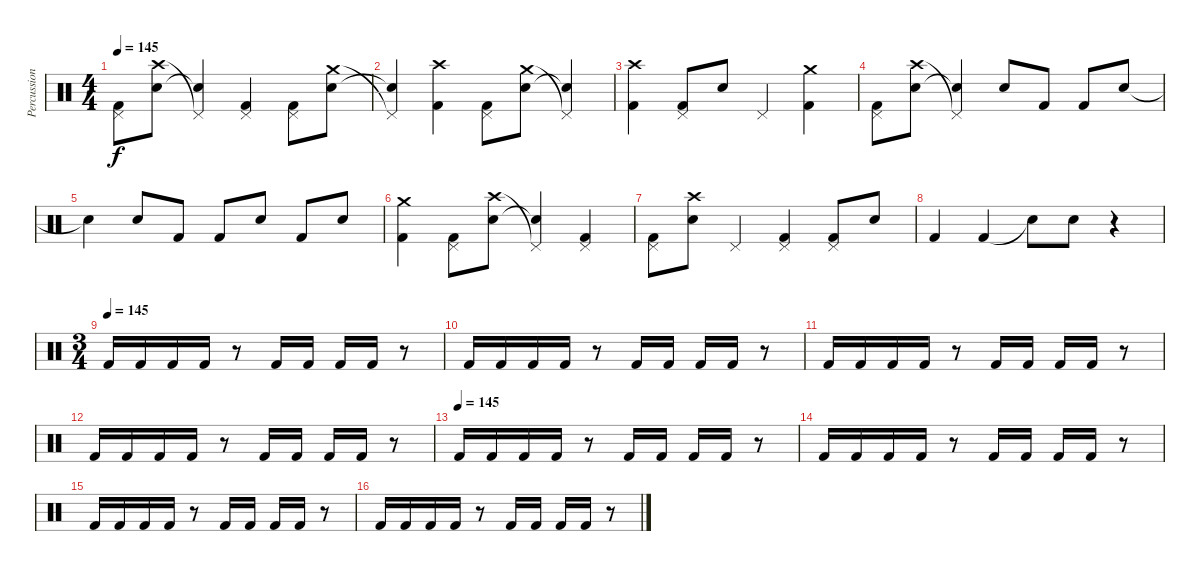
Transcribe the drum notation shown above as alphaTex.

\track ("Percussion" "Percussion") {instrument percussion}
\staff {score}
\articulation defaults
\ts (4 4)
\tempo 145
\clef neutral
\ks c
("Pedal Hi-Hat (hit)" "Kick (hit) 2").8{dy f} ("Crash high (hit)" "Electric Snare (hit)").8 ("Pedal Hi-Hat (hit)"{t} "Snare (hit)"{t}).4 ("Pedal Hi-Hat (hit)" "Kick (hit) 2").4 ("Pedal Hi-Hat (hit)" "Kick (hit) 2").8 ("Crash medium (hit)" "Electric Snare (hit)").8 |
("Pedal Hi-Hat (hit)"{t} "Snare (hit)"{t}).4 ("Crash high (hit)" "Kick (hit) 2").4 ("Pedal Hi-Hat (hit)" "Kick (hit) 2").8 ("Crash medium (hit)" "Electric Snare (hit)").8 ("Pedal Hi-Hat (hit)"{t} "Snare (hit)"{t}).4 |
("Crash high (hit)" "Kick (hit) 2").4 ("Pedal Hi-Hat (hit)" "Kick (hit) 2").8 "Electric Snare (hit)".8 "Pedal Hi-Hat (hit)".4 ("Crash medium (hit)" "Kick (hit) 2").4 |
("Pedal Hi-Hat (hit)" "Kick (hit) 2").8 ("Crash high (hit)" "Electric Snare (hit)").8 ("Pedal Hi-Hat (hit)"{t} "Snare (hit)"{t}).4 "Electric Snare (hit)".8 "Kick (hit) 2".8 "Kick (hit) 2".8 "Electric Snare (hit)".8 |
"Snare (hit)"{t}.4 "Electric Snare (hit)".8 "Kick (hit) 2".8 "Kick (hit) 2".8 "Electric Snare (hit)".8 "Kick (hit) 2".8 "Electric Snare (hit)".8 |
("Crash medium (hit)" "Kick (hit) 2").4 ("Pedal Hi-Hat (hit)" "Kick (hit) 2").8 ("Crash high (hit)" "Electric Snare (hit)").8 ("Pedal Hi-Hat (hit)"{t} "Snare (hit)"{t}).4 ("Pedal Hi-Hat (hit)" "Kick (hit) 2").4 |
("Pedal Hi-Hat (hit)" "Kick (hit) 2").8 ("Crash high (hit)" "Electric Snare (hit)").8 "Pedal Hi-Hat (hit)".4 ("Pedal Hi-Hat (hit)" "Kick (hit) 2").4 ("Pedal Hi-Hat (hit)" "Kick (hit) 2").8 "Electric Snare (hit)".8 |
"Kick (hit) 2".4 "Kick (hit) 2".4 "Snare (hit)"{t}.8 "Electric Snare (hit)".8 r.4 |
\ts (3 4)
\tempo (145)
"Kick (hit) 2".16 "Kick (hit) 2".16 "Kick (hit) 2".16 "Kick (hit) 2".16 r.8 "Kick (hit) 2".16 "Kick (hit) 2".16 "Kick (hit) 2".16 "Kick (hit) 2".16 r.8 |
"Kick (hit) 2".16 "Kick (hit) 2".16 "Kick (hit) 2".16 "Kick (hit) 2".16 r.8 "Kick (hit) 2".16 "Kick (hit) 2".16 "Kick (hit) 2".16 "Kick (hit) 2".16 r.8 |
"Kick (hit) 2".16 "Kick (hit) 2".16 "Kick (hit) 2".16 "Kick (hit) 2".16 r.8 "Kick (hit) 2".16 "Kick (hit) 2".16 "Kick (hit) 2".16 "Kick (hit) 2".16 r.8 |
"Kick (hit) 2".16 "Kick (hit) 2".16 "Kick (hit) 2".16 "Kick (hit) 2".16 r.8 "Kick (hit) 2".16 "Kick (hit) 2".16 "Kick (hit) 2".16 "Kick (hit) 2".16 r.8 |
\tempo (145)
"Kick (hit) 2".16 "Kick (hit) 2".16 "Kick (hit) 2".16 "Kick (hit) 2".16 r.8 "Kick (hit) 2".16 "Kick (hit) 2".16 "Kick (hit) 2".16 "Kick (hit) 2".16 r.8 |
"Kick (hit) 2".16 "Kick (hit) 2".16 "Kick (hit) 2".16 "Kick (hit) 2".16 r.8 "Kick (hit) 2".16 "Kick (hit) 2".16 "Kick (hit) 2".16 "Kick (hit) 2".16 r.8 |
"Kick (hit) 2".16 "Kick (hit) 2".16 "Kick (hit) 2".16 "Kick (hit) 2".16 r.8 "Kick (hit) 2".16 "Kick (hit) 2".16 "Kick (hit) 2".16 "Kick (hit) 2".16 r.8 |
"Kick (hit) 2".16 "Kick (hit) 2".16 "Kick (hit) 2".16 "Kick (hit) 2".16 r.8 "Kick (hit) 2".16 "Kick (hit) 2".16 "Kick (hit) 2".16 "Kick (hit) 2".16 r.8
